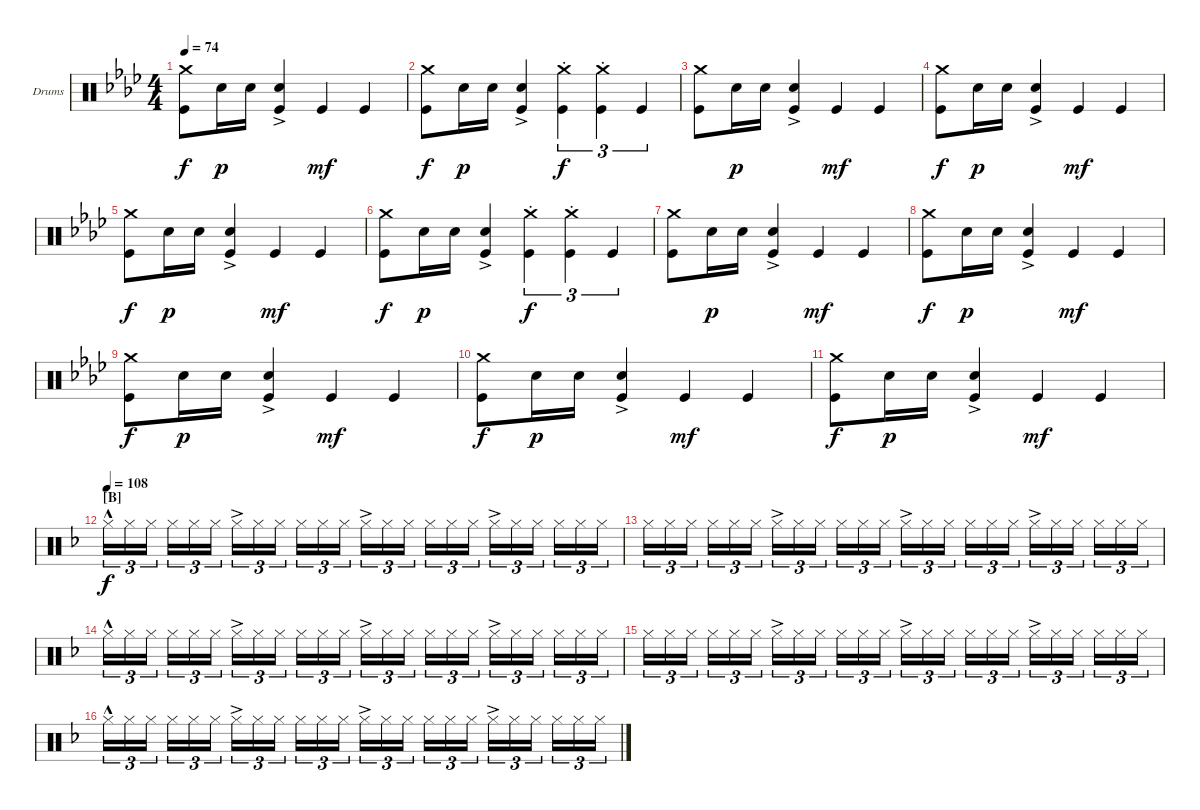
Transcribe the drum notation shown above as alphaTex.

\defaultSystemsLayout 4
\bracketExtendMode groupsimilarinstruments
\firstSystemTrackNameOrientation horizontal
\otherSystemsTrackNameOrientation horizontal
\track ("Drumkit" "Drums") {instrument percussion}
\staff {score}
\articulation defaults
\ts (4 4)
\tempo 74
\clef neutral
\ks ab
("Kick (hit)" "Crash medium (hit)").8{dy f} "Snare (hit) 2".16{dy p} "Snare (hit) 2".16 ("Kick (hit)"{ac} "Snare (hit) 2").4 "Kick (hit)".4{dy mf} "Kick (hit)".4 |
("Kick (hit)" "Crash medium (hit)").8{dy f} "Snare (hit) 2".16{dy p} "Snare (hit) 2".16 ("Kick (hit)"{ac} "Snare (hit) 2").4 ("Kick (hit)" "Crash medium (hit)"{st}).4{tu (3 2) dy f} ("Kick (hit)" "Crash medium (hit)"{st}).4{tu (3 2)} "Kick (hit)".4{tu (3 2)} |
("Kick (hit)" "Crash medium (hit)").8 "Snare (hit) 2".16{dy p} "Snare (hit) 2".16 ("Kick (hit)"{ac} "Snare (hit) 2").4 "Kick (hit)".4{dy mf} "Kick (hit)".4 |
("Kick (hit)" "Crash medium (hit)").8{dy f} "Snare (hit) 2".16{dy p} "Snare (hit) 2".16 ("Kick (hit)"{ac} "Snare (hit) 2").4 "Kick (hit)".4{dy mf} "Kick (hit)".4 |
("Kick (hit)" "Crash medium (hit)").8{dy f} "Snare (hit) 2".16{dy p} "Snare (hit) 2".16 ("Kick (hit)"{ac} "Snare (hit) 2").4 "Kick (hit)".4{dy mf} "Kick (hit)".4 |
("Kick (hit)" "Crash medium (hit)").8{dy f} "Snare (hit) 2".16{dy p} "Snare (hit) 2".16 ("Kick (hit)"{ac} "Snare (hit) 2").4 ("Kick (hit)" "Crash medium (hit)"{st}).4{tu (3 2) dy f} ("Kick (hit)" "Crash medium (hit)"{st}).4{tu (3 2)} "Kick (hit)".4{tu (3 2)} |
("Kick (hit)" "Crash medium (hit)").8 "Snare (hit) 2".16{dy p} "Snare (hit) 2".16 ("Kick (hit)"{ac} "Snare (hit) 2").4 "Kick (hit)".4{dy mf} "Kick (hit)".4 |
("Kick (hit)" "Crash medium (hit)").8{dy f} "Snare (hit) 2".16{dy p} "Snare (hit) 2".16 ("Kick (hit)"{ac} "Snare (hit) 2").4 "Kick (hit)".4{dy mf} "Kick (hit)".4 |
("Kick (hit)" "Crash medium (hit)").8{dy f} "Snare (hit) 2".16{dy p} "Snare (hit) 2".16 ("Kick (hit)"{ac} "Snare (hit) 2").4 "Kick (hit)".4{dy mf} "Kick (hit)".4 |
("Kick (hit)" "Crash medium (hit)").8{dy f} "Snare (hit) 2".16{dy p} "Snare (hit) 2".16 ("Kick (hit)"{ac} "Snare (hit) 2").4 "Kick (hit)".4{dy mf} "Kick (hit)".4 |
("Kick (hit)" "Crash medium (hit)").8{dy f} "Snare (hit) 2".16{dy p} "Snare (hit) 2".16 ("Kick (hit)"{ac} "Snare (hit) 2").4 "Kick (hit)".4{dy mf} "Kick (hit)".4 |
\section ("B" "")
\tempo 108
\ks dminor "Hi-Hat (closed)"{hac}.16{tu (3 2) dy f} "Hi-Hat (closed)".16{tu (3 2)} "Hi-Hat (closed)".16{tu (3 2)} "Hi-Hat (closed)".16{tu (3 2)} "Hi-Hat (closed)".16{tu (3 2)} "Hi-Hat (closed)".16{tu (3 2)} "Hi-Hat (closed)"{ac}.16{tu (3 2)} "Hi-Hat (closed)".16{tu (3 2)} "Hi-Hat (closed)".16{tu (3 2)} "Hi-Hat (closed)".16{tu (3 2)} "Hi-Hat (closed)".16{tu (3 2)} "Hi-Hat (closed)".16{tu (3 2)} "Hi-Hat (closed)"{ac}.16{tu (3 2)} "Hi-Hat (closed)".16{tu (3 2)} "Hi-Hat (closed)".16{tu (3 2)} "Hi-Hat (closed)".16{tu (3 2)} "Hi-Hat (closed)".16{tu (3 2)} "Hi-Hat (closed)".16{tu (3 2)} "Hi-Hat (closed)"{ac}.16{tu (3 2)} "Hi-Hat (closed)".16{tu (3 2)} "Hi-Hat (closed)".16{tu (3 2)} "Hi-Hat (closed)".16{tu (3 2)} "Hi-Hat (closed)".16{tu (3 2)} "Hi-Hat (closed)".16{tu (3 2)}
|
"Hi-Hat (closed)".16{tu (3 2)} "Hi-Hat (closed)".16{tu (3 2)} "Hi-Hat (closed)".16{tu (3 2)} "Hi-Hat (closed)".16{tu (3 2)} "Hi-Hat (closed)".16{tu (3 2)} "Hi-Hat (closed)".16{tu (3 2)} "Hi-Hat (closed)"{ac}.16{tu (3 2)} "Hi-Hat (closed)".16{tu (3 2)} "Hi-Hat (closed)".16{tu (3 2)} "Hi-Hat (closed)".16{tu (3 2)} "Hi-Hat (closed)".16{tu (3 2)} "Hi-Hat (closed)".16{tu (3 2)} "Hi-Hat (closed)"{ac}.16{tu (3 2)} "Hi-Hat (closed)".16{tu (3 2)} "Hi-Hat (closed)".16{tu (3 2)} "Hi-Hat (closed)".16{tu (3 2)} "Hi-Hat (closed)".16{tu (3 2)} "Hi-Hat (closed)".16{tu (3 2)} "Hi-Hat (closed)"{ac}.16{tu (3 2)} "Hi-Hat (closed)".16{tu (3 2)} "Hi-Hat (closed)".16{tu (3 2)} "Hi-Hat (closed)".16{tu (3 2)} "Hi-Hat (closed)".16{tu (3 2)} "Hi-Hat (closed)".16{tu (3 2)} |
"Hi-Hat (closed)"{hac}.16{tu (3 2)} "Hi-Hat (closed)".16{tu (3 2)} "Hi-Hat (closed)".16{tu (3 2)} "Hi-Hat (closed)".16{tu (3 2)} "Hi-Hat (closed)".16{tu (3 2)} "Hi-Hat (closed)".16{tu (3 2)} "Hi-Hat (closed)"{ac}.16{tu (3 2)} "Hi-Hat (closed)".16{tu (3 2)} "Hi-Hat (closed)".16{tu (3 2)} "Hi-Hat (closed)".16{tu (3 2)} "Hi-Hat (closed)".16{tu (3 2)} "Hi-Hat (closed)".16{tu (3 2)} "Hi-Hat (closed)"{ac}.16{tu (3 2)} "Hi-Hat (closed)".16{tu (3 2)} "Hi-Hat (closed)".16{tu (3 2)} "Hi-Hat (closed)".16{tu (3 2)} "Hi-Hat (closed)".16{tu (3 2)} "Hi-Hat (closed)".16{tu (3 2)} "Hi-Hat (closed)"{ac}.16{tu (3 2)} "Hi-Hat (closed)".16{tu (3 2)} "Hi-Hat (closed)".16{tu (3 2)} "Hi-Hat (closed)".16{tu (3 2)} "Hi-Hat (closed)".16{tu (3 2)} "Hi-Hat (closed)".16{tu (3 2)} |
"Hi-Hat (closed)".16{tu (3 2)} "Hi-Hat (closed)".16{tu (3 2)} "Hi-Hat (closed)".16{tu (3 2)} "Hi-Hat (closed)".16{tu (3 2)} "Hi-Hat (closed)".16{tu (3 2)} "Hi-Hat (closed)".16{tu (3 2)} "Hi-Hat (closed)"{ac}.16{tu (3 2)} "Hi-Hat (closed)".16{tu (3 2)} "Hi-Hat (closed)".16{tu (3 2)} "Hi-Hat (closed)".16{tu (3 2)} "Hi-Hat (closed)".16{tu (3 2)} "Hi-Hat (closed)".16{tu (3 2)} "Hi-Hat (closed)"{ac}.16{tu (3 2)} "Hi-Hat (closed)".16{tu (3 2)} "Hi-Hat (closed)".16{tu (3 2)} "Hi-Hat (closed)".16{tu (3 2)} "Hi-Hat (closed)".16{tu (3 2)} "Hi-Hat (closed)".16{tu (3 2)} "Hi-Hat (closed)"{ac}.16{tu (3 2)} "Hi-Hat (closed)".16{tu (3 2)} "Hi-Hat (closed)".16{tu (3 2)} "Hi-Hat (closed)".16{tu (3 2)} "Hi-Hat (closed)".16{tu (3 2)} "Hi-Hat (closed)".16{tu (3 2)} |
"Hi-Hat (closed)"{hac}.16{tu (3 2)} "Hi-Hat (closed)".16{tu (3 2)} "Hi-Hat (closed)".16{tu (3 2)} "Hi-Hat (closed)".16{tu (3 2)} "Hi-Hat (closed)".16{tu (3 2)} "Hi-Hat (closed)".16{tu (3 2)} "Hi-Hat (closed)"{ac}.16{tu (3 2)} "Hi-Hat (closed)".16{tu (3 2)} "Hi-Hat (closed)".16{tu (3 2)} "Hi-Hat (closed)".16{tu (3 2)} "Hi-Hat (closed)".16{tu (3 2)} "Hi-Hat (closed)".16{tu (3 2)} "Hi-Hat (closed)"{ac}.16{tu (3 2)} "Hi-Hat (closed)".16{tu (3 2)} "Hi-Hat (closed)".16{tu (3 2)} "Hi-Hat (closed)".16{tu (3 2)} "Hi-Hat (closed)".16{tu (3 2)} "Hi-Hat (closed)".16{tu (3 2)} "Hi-Hat (closed)"{ac}.16{tu (3 2)} "Hi-Hat (closed)".16{tu (3 2)} "Hi-Hat (closed)".16{tu (3 2)} "Hi-Hat (closed)".16{tu (3 2)} "Hi-Hat (closed)".16{tu (3 2)} "Hi-Hat (closed)".16{tu (3 2)}
